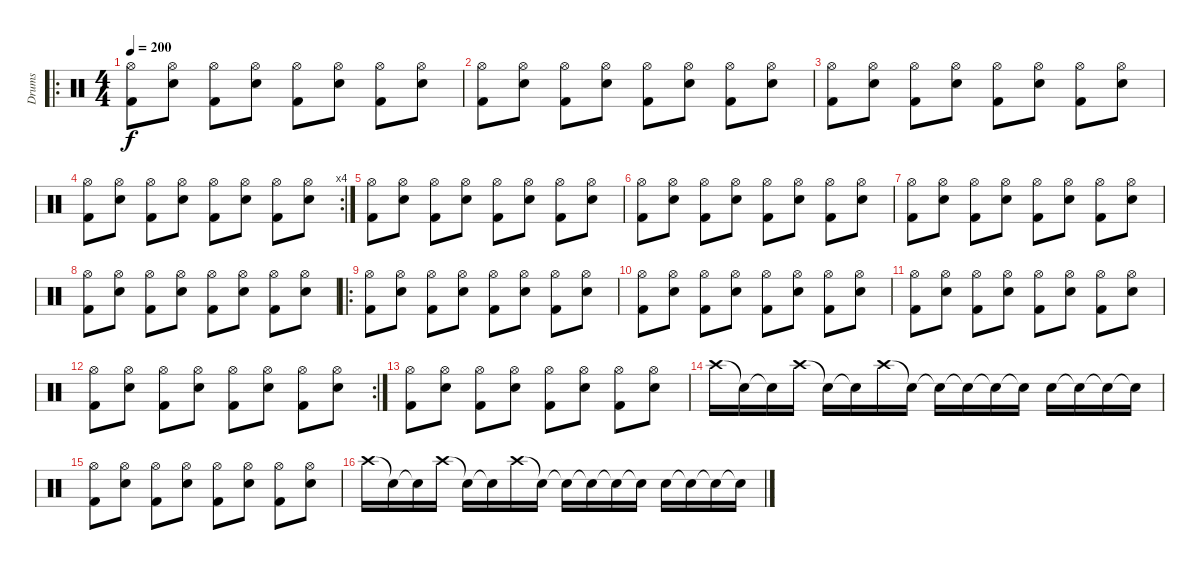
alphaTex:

\track ("Drums" "Drums") {instrument percussion}
\staff {score}
\articulation defaults
\ro
\ts (4 4)
\tempo 200
\clef neutral
\ks c
("Kick (hit) 2" "Hi-Hat (open)").8{dy f} ("Snare (hit) 2" "Hi-Hat (open)").8 ("Kick (hit) 2" "Hi-Hat (open)").8 ("Snare (hit) 2" "Hi-Hat (open)").8 ("Kick (hit) 2" "Hi-Hat (open)").8 ("Snare (hit) 2" "Hi-Hat (open)").8 ("Kick (hit) 2" "Hi-Hat (open)").8 ("Snare (hit) 2" "Hi-Hat (open)").8 |
("Kick (hit) 2" "Hi-Hat (open)").8 ("Snare (hit) 2" "Hi-Hat (open)").8 ("Kick (hit) 2" "Hi-Hat (open)").8 ("Snare (hit) 2" "Hi-Hat (open)").8 ("Kick (hit) 2" "Hi-Hat (open)").8 ("Snare (hit) 2" "Hi-Hat (open)").8 ("Kick (hit) 2" "Hi-Hat (open)").8 ("Snare (hit) 2" "Hi-Hat (open)").8 |
("Kick (hit) 2" "Hi-Hat (open)").8 ("Snare (hit) 2" "Hi-Hat (open)").8 ("Kick (hit) 2" "Hi-Hat (open)").8 ("Snare (hit) 2" "Hi-Hat (open)").8 ("Kick (hit) 2" "Hi-Hat (open)").8 ("Snare (hit) 2" "Hi-Hat (open)").8 ("Kick (hit) 2" "Hi-Hat (open)").8 ("Snare (hit) 2" "Hi-Hat (open)").8 |
\rc 4
("Kick (hit) 2" "Hi-Hat (open)").8 ("Snare (hit) 2" "Hi-Hat (open)").8 ("Kick (hit) 2" "Hi-Hat (open)").8 ("Snare (hit) 2" "Hi-Hat (open)").8 ("Kick (hit) 2" "Hi-Hat (open)").8 ("Snare (hit) 2" "Hi-Hat (open)").8 ("Kick (hit) 2" "Hi-Hat (open)").8 ("Snare (hit) 2" "Hi-Hat (open)").8 |
("Kick (hit) 2" "Hi-Hat (open)").8 ("Snare (hit) 2" "Hi-Hat (open)").8 ("Kick (hit) 2" "Hi-Hat (open)").8 ("Snare (hit) 2" "Hi-Hat (open)").8 ("Kick (hit) 2" "Hi-Hat (open)").8 ("Snare (hit) 2" "Hi-Hat (open)").8 ("Kick (hit) 2" "Hi-Hat (open)").8 ("Snare (hit) 2" "Hi-Hat (open)").8 |
("Kick (hit) 2" "Hi-Hat (open)").8 ("Snare (hit) 2" "Hi-Hat (open)").8 ("Kick (hit) 2" "Hi-Hat (open)").8 ("Snare (hit) 2" "Hi-Hat (open)").8 ("Kick (hit) 2" "Hi-Hat (open)").8 ("Snare (hit) 2" "Hi-Hat (open)").8 ("Kick (hit) 2" "Hi-Hat (open)").8 ("Snare (hit) 2" "Hi-Hat (open)").8 |
("Kick (hit) 2" "Hi-Hat (open)").8 ("Snare (hit) 2" "Hi-Hat (open)").8 ("Kick (hit) 2" "Hi-Hat (open)").8 ("Snare (hit) 2" "Hi-Hat (open)").8 ("Kick (hit) 2" "Hi-Hat (open)").8 ("Snare (hit) 2" "Hi-Hat (open)").8 ("Kick (hit) 2" "Hi-Hat (open)").8 ("Snare (hit) 2" "Hi-Hat (open)").8 |
("Kick (hit) 2" "Hi-Hat (open)").8 ("Snare (hit) 2" "Hi-Hat (open)").8 ("Kick (hit) 2" "Hi-Hat (open)").8 ("Snare (hit) 2" "Hi-Hat (open)").8 ("Kick (hit) 2" "Hi-Hat (open)").8 ("Snare (hit) 2" "Hi-Hat (open)").8 ("Kick (hit) 2" "Hi-Hat (open)").8 ("Snare (hit) 2" "Hi-Hat (open)").8 |
\ro
("Kick (hit) 2" "Hi-Hat (open)").8 ("Snare (hit) 2" "Hi-Hat (open)").8 ("Kick (hit) 2" "Hi-Hat (open)").8 ("Snare (hit) 2" "Hi-Hat (open)").8 ("Kick (hit) 2" "Hi-Hat (open)").8 ("Snare (hit) 2" "Hi-Hat (open)").8 ("Kick (hit) 2" "Hi-Hat (open)").8 ("Snare (hit) 2" "Hi-Hat (open)").8 |
("Kick (hit) 2" "Hi-Hat (open)").8 ("Snare (hit) 2" "Hi-Hat (open)").8 ("Kick (hit) 2" "Hi-Hat (open)").8 ("Snare (hit) 2" "Hi-Hat (open)").8 ("Kick (hit) 2" "Hi-Hat (open)").8 ("Snare (hit) 2" "Hi-Hat (open)").8 ("Kick (hit) 2" "Hi-Hat (open)").8 ("Snare (hit) 2" "Hi-Hat (open)").8 |
("Kick (hit) 2" "Hi-Hat (open)").8 ("Snare (hit) 2" "Hi-Hat (open)").8 ("Kick (hit) 2" "Hi-Hat (open)").8 ("Snare (hit) 2" "Hi-Hat (open)").8 ("Kick (hit) 2" "Hi-Hat (open)").8 ("Snare (hit) 2" "Hi-Hat (open)").8 ("Kick (hit) 2" "Hi-Hat (open)").8 ("Snare (hit) 2" "Hi-Hat (open)").8 |
\rc 2
("Kick (hit) 2" "Hi-Hat (open)").8 ("Snare (hit) 2" "Hi-Hat (open)").8 ("Kick (hit) 2" "Hi-Hat (open)").8 ("Snare (hit) 2" "Hi-Hat (open)").8 ("Kick (hit) 2" "Hi-Hat (open)").8 ("Snare (hit) 2" "Hi-Hat (open)").8 ("Kick (hit) 2" "Hi-Hat (open)").8 ("Snare (hit) 2" "Hi-Hat (open)").8 |
("Kick (hit) 2" "Hi-Hat (open)").8 ("Snare (hit) 2" "Hi-Hat (open)").8 ("Kick (hit) 2" "Hi-Hat (open)").8 ("Snare (hit) 2" "Hi-Hat (open)").8 ("Kick (hit) 2" "Hi-Hat (open)").8 ("Snare (hit) 2" "Hi-Hat (open)").8 ("Kick (hit) 2" "Hi-Hat (open)").8 ("Snare (hit) 2" "Hi-Hat (open)").8 |
"Crash high (hit)".16 "Snare (hit)"{t}.16 "Snare (hit)"{t}.16 "Crash high (hit)".16 "Snare (hit)"{t}.16 "Snare (hit)"{t}.16 "Crash high (hit)".16 "Snare (hit)"{t}.16 "Snare (hit)"{t}.16 "Snare (hit)"{t}.16 "Snare (hit) 2"{t}.16 "Snare (hit)"{t}.16 "Snare (hit) 2".16 "Snare (hit)"{t}.16 "Snare (hit)"{t}.16 "Snare (hit)"{t}.16 |
("Kick (hit) 2" "Hi-Hat (open)").8 ("Snare (hit) 2" "Hi-Hat (open)").8 ("Kick (hit) 2" "Hi-Hat (open)").8 ("Snare (hit) 2" "Hi-Hat (open)").8 ("Kick (hit) 2" "Hi-Hat (open)").8 ("Snare (hit) 2" "Hi-Hat (open)").8 ("Kick (hit) 2" "Hi-Hat (open)").8 ("Snare (hit) 2" "Hi-Hat (open)").8 |
"Crash high (hit)".16 "Snare (hit)"{t}.16 "Snare (hit)"{t}.16 "Crash high (hit)".16 "Snare (hit)"{t}.16 "Snare (hit)"{t}.16 "Crash high (hit)".16 "Snare (hit)"{t}.16 "Snare (hit)"{t}.16 "Snare (hit)"{t}.16 "Snare (hit) 2"{t}.16 "Snare (hit)"{t}.16 "Snare (hit) 2".16 "Snare (hit)"{t}.16 "Snare (hit)"{t}.16 "Snare (hit)"{t}.16
